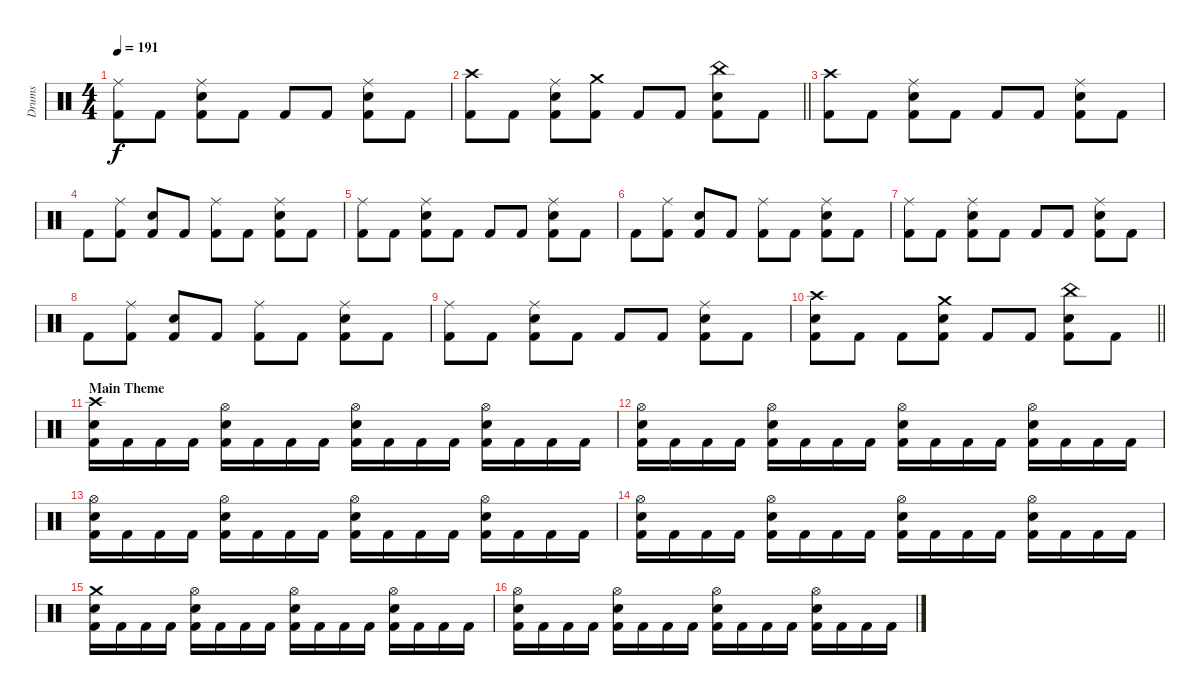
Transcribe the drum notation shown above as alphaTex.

\track ("Drums" "Drums") {instrument percussion}
\staff {score}
\articulation defaults
\ts (4 4)
\tempo 191
\clef neutral
\ks c
("Ride (middle)" "Kick (hit) 2").8{dy f} "Kick (hit) 2".8 ("Ride (middle)" "Snare (hit) 2" "Kick (hit) 2").8 "Kick (hit) 2".8 "Kick (hit) 2".8 "Kick (hit) 2".8 ("Ride (middle)" "Snare (hit) 2" "Kick (hit) 2").8 "Kick (hit) 2".8 |
\barLineRight lightlight
("Crash high (hit)" "Kick (hit) 2").8 "Kick (hit) 2".8 ("Ride (middle)" "Snare (hit) 2" "Kick (hit) 2").8 ("Crash medium (hit)" "Kick (hit) 2").8 "Kick (hit) 2".8 "Kick (hit) 2".8 ("China (hit)" "Snare (hit) 2" "Kick (hit) 2").8 "Kick (hit) 2".8 |
\section ("" "")
("Crash high (hit)" "Kick (hit) 2").8 "Kick (hit) 2".8 ("Ride (middle)" "Snare (hit) 2" "Kick (hit) 2").8 "Kick (hit) 2".8 "Kick (hit) 2".8 "Kick (hit) 2".8 ("Ride (middle)" "Snare (hit) 2" "Kick (hit) 2").8 "Kick (hit) 2".8 |
"Kick (hit) 2".8 ("Ride (middle)" "Kick (hit) 2").8 ("Snare (hit) 2" "Kick (hit) 2").8 "Kick (hit) 2".8 ("Ride (middle)" "Kick (hit) 2").8 "Kick (hit) 2".8 ("Ride (middle)" "Snare (hit) 2" "Kick (hit) 2").8 "Kick (hit) 2".8 |
("Ride (middle)" "Kick (hit) 2").8 "Kick (hit) 2".8 ("Ride (middle)" "Snare (hit) 2" "Kick (hit) 2").8 "Kick (hit) 2".8 "Kick (hit) 2".8 "Kick (hit) 2".8 ("Ride (middle)" "Snare (hit) 2" "Kick (hit) 2").8 "Kick (hit) 2".8 |
"Kick (hit) 2".8 ("Ride (middle)" "Kick (hit) 2").8 ("Snare (hit) 2" "Kick (hit) 2").8 "Kick (hit) 2".8 ("Ride (middle)" "Kick (hit) 2").8 "Kick (hit) 2".8 ("Ride (middle)" "Snare (hit) 2" "Kick (hit) 2").8 "Kick (hit) 2".8 |
("Ride (middle)" "Kick (hit) 2").8 "Kick (hit) 2".8 ("Ride (middle)" "Snare (hit) 2" "Kick (hit) 2").8 "Kick (hit) 2".8 "Kick (hit) 2".8 "Kick (hit) 2".8 ("Ride (middle)" "Snare (hit) 2" "Kick (hit) 2").8 "Kick (hit) 2".8 |
"Kick (hit) 2".8 ("Ride (middle)" "Kick (hit) 2").8 ("Snare (hit) 2" "Kick (hit) 2").8 "Kick (hit) 2".8 ("Ride (middle)" "Kick (hit) 2").8 "Kick (hit) 2".8 ("Ride (middle)" "Snare (hit) 2" "Kick (hit) 2").8 "Kick (hit) 2".8 |
("Ride (middle)" "Kick (hit) 2").8 "Kick (hit) 2".8 ("Ride (middle)" "Snare (hit) 2" "Kick (hit) 2").8 "Kick (hit) 2".8 "Kick (hit) 2".8 "Kick (hit) 2".8 ("Ride (middle)" "Snare (hit) 2" "Kick (hit) 2").8 "Kick (hit) 2".8 |
\barLineRight lightlight
("Crash high (hit)" "Snare (hit) 2" "Kick (hit) 2").8 "Kick (hit) 2".8 "Kick (hit) 2".8 ("Crash medium (hit)" "Snare (hit) 2" "Kick (hit) 2").8 "Kick (hit) 2".8 "Kick (hit) 2".8 ("China (hit)" "Snare (hit) 2" "Kick (hit) 2").8 "Kick (hit) 2".8 |
\section ("" "Main Theme")
("Crash high (hit)" "Snare (hit) 2" "Kick (hit) 2").16 "Kick (hit) 2".16 "Kick (hit) 2".16 "Kick (hit) 2".16 ("Hi-Hat (open)" "Snare (hit) 2" "Kick (hit) 2").16 "Kick (hit) 2".16 "Kick (hit) 2".16 "Kick (hit) 2".16 ("Hi-Hat (open)" "Snare (hit) 2" "Kick (hit) 2").16 "Kick (hit) 2".16 "Kick (hit) 2".16 "Kick (hit) 2".16 ("Hi-Hat (open)" "Snare (hit) 2" "Kick (hit) 2").16 "Kick (hit) 2".16 "Kick (hit) 2".16 "Kick (hit) 2".16 |
("Hi-Hat (open)" "Snare (hit) 2" "Kick (hit) 2").16 "Kick (hit) 2".16 "Kick (hit) 2".16 "Kick (hit) 2".16 ("Hi-Hat (open)" "Snare (hit) 2" "Kick (hit) 2").16 "Kick (hit) 2".16 "Kick (hit) 2".16 "Kick (hit) 2".16 ("Hi-Hat (open)" "Snare (hit) 2" "Kick (hit) 2").16 "Kick (hit) 2".16 "Kick (hit) 2".16 "Kick (hit) 2".16 ("Hi-Hat (open)" "Snare (hit) 2" "Kick (hit) 2").16 "Kick (hit) 2".16 "Kick (hit) 2".16 "Kick (hit) 2".16 |
("Hi-Hat (open)" "Snare (hit) 2" "Kick (hit) 2").16 "Kick (hit) 2".16 "Kick (hit) 2".16 "Kick (hit) 2".16 ("Hi-Hat (open)" "Snare (hit) 2" "Kick (hit) 2").16 "Kick (hit) 2".16 "Kick (hit) 2".16 "Kick (hit) 2".16 ("Hi-Hat (open)" "Snare (hit) 2" "Kick (hit) 2").16 "Kick (hit) 2".16 "Kick (hit) 2".16 "Kick (hit) 2".16 ("Hi-Hat (open)" "Snare (hit) 2" "Kick (hit) 2").16 "Kick (hit) 2".16 "Kick (hit) 2".16 "Kick (hit) 2".16 |
("Hi-Hat (open)" "Snare (hit) 2" "Kick (hit) 2").16 "Kick (hit) 2".16 "Kick (hit) 2".16 "Kick (hit) 2".16 ("Hi-Hat (open)" "Snare (hit) 2" "Kick (hit) 2").16 "Kick (hit) 2".16 "Kick (hit) 2".16 "Kick (hit) 2".16 ("Hi-Hat (open)" "Snare (hit) 2" "Kick (hit) 2").16 "Kick (hit) 2".16 "Kick (hit) 2".16 "Kick (hit) 2".16 ("Hi-Hat (open)" "Snare (hit) 2" "Kick (hit) 2").16 "Kick (hit) 2".16 "Kick (hit) 2".16 "Kick (hit) 2".16 |
("Crash medium (hit)" "Snare (hit) 2" "Kick (hit) 2").16 "Kick (hit) 2".16 "Kick (hit) 2".16 "Kick (hit) 2".16 ("Hi-Hat (open)" "Snare (hit) 2" "Kick (hit) 2").16 "Kick (hit) 2".16 "Kick (hit) 2".16 "Kick (hit) 2".16 ("Hi-Hat (open)" "Snare (hit) 2" "Kick (hit) 2").16 "Kick (hit) 2".16 "Kick (hit) 2".16 "Kick (hit) 2".16 ("Hi-Hat (open)" "Snare (hit) 2" "Kick (hit) 2").16 "Kick (hit) 2".16 "Kick (hit) 2".16 "Kick (hit) 2".16 |
("Hi-Hat (open)" "Snare (hit) 2" "Kick (hit) 2").16 "Kick (hit) 2".16 "Kick (hit) 2".16 "Kick (hit) 2".16 ("Hi-Hat (open)" "Snare (hit) 2" "Kick (hit) 2").16 "Kick (hit) 2".16 "Kick (hit) 2".16 "Kick (hit) 2".16 ("Hi-Hat (open)" "Snare (hit) 2" "Kick (hit) 2").16 "Kick (hit) 2".16 "Kick (hit) 2".16 "Kick (hit) 2".16 ("Hi-Hat (open)" "Snare (hit) 2" "Kick (hit) 2").16 "Kick (hit) 2".16 "Kick (hit) 2".16 "Kick (hit) 2".16
